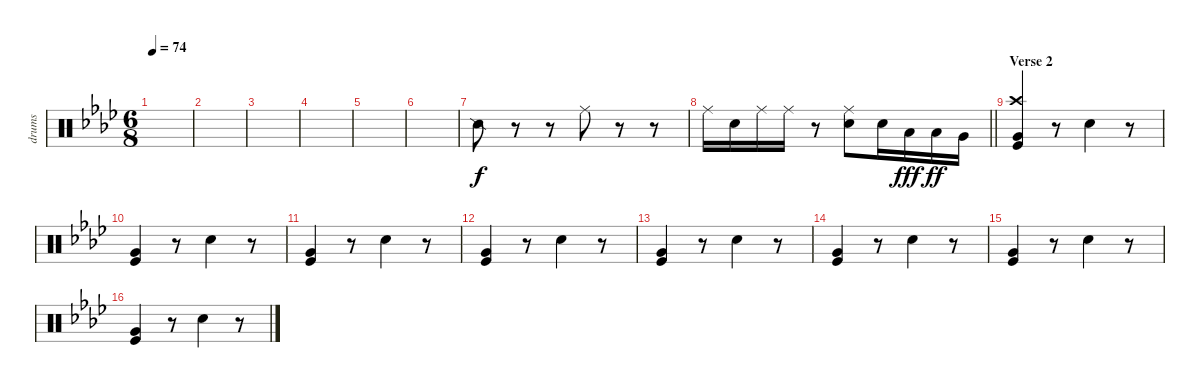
\track ("drums" "drums") {instrument percussion}
\staff {score}
\articulation defaults
\ts (6 8)
\tempo 74
\clef neutral
\ks ab
|
|
|
|
|
|
"Snare (side stick) 2".8 r.8 r.8 "Ride (middle)".8 r.8 r.8 |
\barLineRight lightlight "Ride (middle)".16 "Electric Snare (hit)".16 "Ride (middle)".16 "Ride (middle)".16
r.8 ("Ride (middle)" "Electric Snare (hit)").8 "Electric Snare (hit)".16 "Low Floor Tom (hit)".16{dy fff} "Low Tom (hit)".16{dy ff} "Very Low Tom (hit)".16 |
\section ("" "Verse 2")
("Crash high (hit)" "Very Low Tom (hit)" "Kick (hit)").4 r.8 "Electric Snare (hit)".4 r.8 |
("Very Low Tom (hit)" "Kick (hit)").4 r.8 "Electric Snare (hit)".4 r.8 |
("Very Low Tom (hit)" "Kick (hit)").4 r.8 "Electric Snare (hit)".4 r.8 |
("Very Low Tom (hit)" "Kick (hit)").4 r.8 "Electric Snare (hit)".4 r.8 |
("Very Low Tom (hit)" "Kick (hit)").4 r.8 "Electric Snare (hit)".4 r.8 |
("Very Low Tom (hit)" "Kick (hit)").4 r.8 "Electric Snare (hit)".4 r.8 |
("Very Low Tom (hit)" "Kick (hit)").4 r.8 "Electric Snare (hit)".4 r.8 |
("Very Low Tom (hit)" "Kick (hit)").4 r.8 "Electric Snare (hit)".4 r.8
